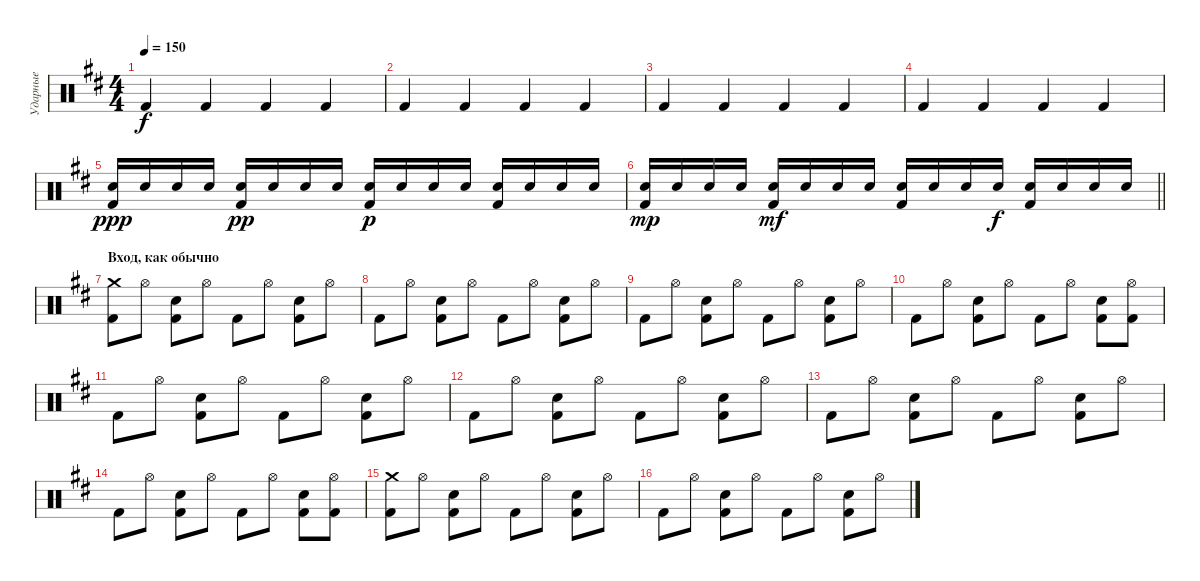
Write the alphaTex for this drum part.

\track ("Ударные" "Ударные") {instrument percussion}
\staff {score}
\articulation defaults
\ts (4 4)
\tempo 150
\clef neutral
\ks bminor "Kick (hit) 2".4{dy f} "Kick (hit) 2".4 "Kick (hit) 2".4 "Kick (hit) 2".4
|
"Kick (hit) 2".4 "Kick (hit) 2".4 "Kick (hit) 2".4 "Kick (hit) 2".4 |
"Kick (hit) 2".4 "Kick (hit) 2".4 "Kick (hit) 2".4 "Kick (hit) 2".4 |
"Kick (hit) 2".4 "Kick (hit) 2".4 "Kick (hit) 2".4 "Kick (hit) 2".4 |
("Electric Snare (hit)" "Kick (hit) 2").16{dy ppp} "Electric Snare (hit)".16 "Electric Snare (hit)".16 "Electric Snare (hit)".16 ("Electric Snare (hit)" "Kick (hit) 2").16{dy pp} "Electric Snare (hit)".16 "Electric Snare (hit)".16 "Electric Snare (hit)".16 ("Electric Snare (hit)" "Kick (hit) 2").16{dy p} "Electric Snare (hit)".16 "Electric Snare (hit)".16 "Electric Snare (hit)".16 ("Electric Snare (hit)" "Kick (hit) 2").16 "Electric Snare (hit)".16 "Electric Snare (hit)".16 "Electric Snare (hit)".16 |
\barLineRight lightlight
("Electric Snare (hit)" "Kick (hit) 2").16{dy mp} "Electric Snare (hit)".16 "Electric Snare (hit)".16 "Electric Snare (hit)".16 ("Electric Snare (hit)" "Kick (hit) 2").16{dy mf} "Electric Snare (hit)".16 "Electric Snare (hit)".16 "Electric Snare (hit)".16 ("Electric Snare (hit)" "Kick (hit) 2").16 "Electric Snare (hit)".16 "Electric Snare (hit)".16 "Electric Snare (hit)".16{dy f} ("Electric Snare (hit)" "Kick (hit) 2").16 "Electric Snare (hit)".16 "Electric Snare (hit)".16 "Electric Snare (hit)".16 |
\section ("" "Вход, как обычно")
("Crash medium (hit)" "Kick (hit) 2").8 "Hi-Hat (open)".8 ("Electric Snare (hit)" "Kick (hit) 2").8 "Hi-Hat (open)".8 "Kick (hit) 2".8 "Hi-Hat (open)".8 ("Electric Snare (hit)" "Kick (hit) 2").8 "Hi-Hat (open)".8 |
"Kick (hit) 2".8 "Hi-Hat (open)".8 ("Electric Snare (hit)" "Kick (hit) 2").8 "Hi-Hat (open)".8 "Kick (hit) 2".8 "Hi-Hat (open)".8 ("Electric Snare (hit)" "Kick (hit) 2").8 "Hi-Hat (open)".8 |
"Kick (hit) 2".8 "Hi-Hat (open)".8 ("Electric Snare (hit)" "Kick (hit) 2").8 "Hi-Hat (open)".8 "Kick (hit) 2".8 "Hi-Hat (open)".8 ("Electric Snare (hit)" "Kick (hit) 2").8 "Hi-Hat (open)".8 |
"Kick (hit) 2".8 "Hi-Hat (open)".8 ("Electric Snare (hit)" "Kick (hit) 2").8 "Hi-Hat (open)".8 "Kick (hit) 2".8 "Hi-Hat (open)".8 ("Electric Snare (hit)" "Kick (hit) 2").8 ("Kick (hit) 2" "Hi-Hat (open)").8 |
"Kick (hit) 2".8 "Hi-Hat (open)".8 ("Electric Snare (hit)" "Kick (hit) 2").8 "Hi-Hat (open)".8 "Kick (hit) 2".8 "Hi-Hat (open)".8 ("Electric Snare (hit)" "Kick (hit) 2").8 "Hi-Hat (open)".8 |
"Kick (hit) 2".8 "Hi-Hat (open)".8 ("Electric Snare (hit)" "Kick (hit) 2").8 "Hi-Hat (open)".8 "Kick (hit) 2".8 "Hi-Hat (open)".8 ("Electric Snare (hit)" "Kick (hit) 2").8 "Hi-Hat (open)".8 |
"Kick (hit) 2".8 "Hi-Hat (open)".8 ("Electric Snare (hit)" "Kick (hit) 2").8 "Hi-Hat (open)".8 "Kick (hit) 2".8 "Hi-Hat (open)".8 ("Electric Snare (hit)" "Kick (hit) 2").8 "Hi-Hat (open)".8 |
"Kick (hit) 2".8 "Hi-Hat (open)".8 ("Electric Snare (hit)" "Kick (hit) 2").8 "Hi-Hat (open)".8 "Kick (hit) 2".8 "Hi-Hat (open)".8 ("Electric Snare (hit)" "Kick (hit) 2").8 ("Kick (hit) 2" "Hi-Hat (open)").8 |
("Crash medium (hit)" "Kick (hit) 2").8 "Hi-Hat (open)".8 ("Electric Snare (hit)" "Kick (hit) 2").8 "Hi-Hat (open)".8 "Kick (hit) 2".8 "Hi-Hat (open)".8 ("Electric Snare (hit)" "Kick (hit) 2").8 "Hi-Hat (open)".8 |
"Kick (hit) 2".8 "Hi-Hat (open)".8 ("Electric Snare (hit)" "Kick (hit) 2").8 "Hi-Hat (open)".8 "Kick (hit) 2".8 "Hi-Hat (open)".8 ("Electric Snare (hit)" "Kick (hit) 2").8 "Hi-Hat (open)".8
